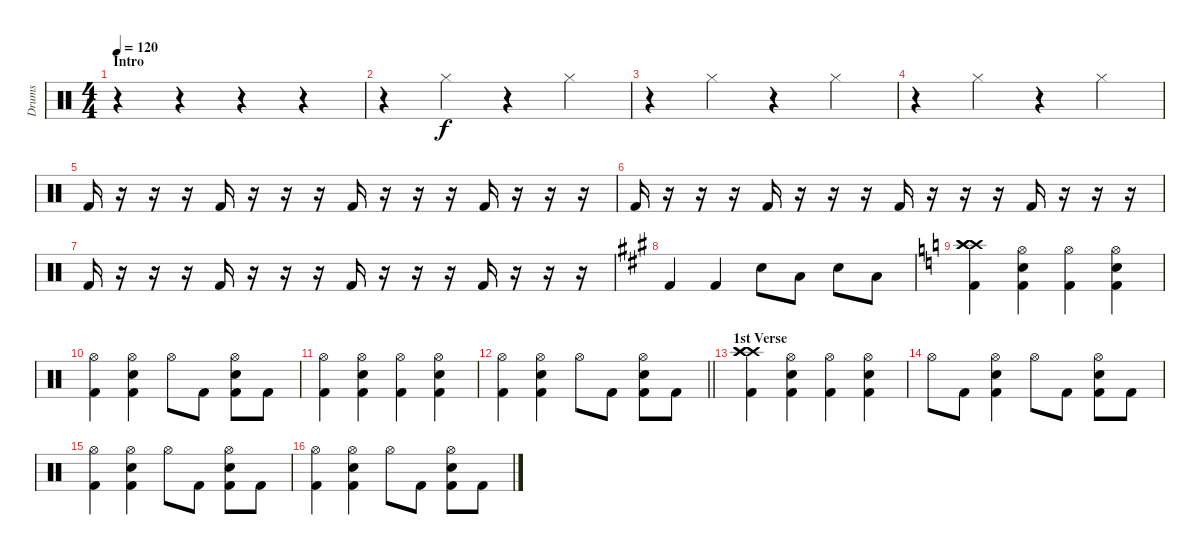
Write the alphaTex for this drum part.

\track ("Drums" "Drums") {instrument percussion}
\staff {score}
\articulation defaults
\ts (4 4)
\section ("" "Intro")
\tempo 120
\clef neutral
\ks c
r.4{dy f} r.4 r.4 r.4 |
r.4 "Hi-Hat (closed)".4 r.4 "Hi-Hat (closed)".4 |
r.4 "Hi-Hat (closed)".4 r.4 "Hi-Hat (closed)".4 |
r.4 "Hi-Hat (closed)".4 r.4 "Hi-Hat (closed)".4 |
"Kick (hit) 2".16 r.16 r.16 r.16 "Kick (hit) 2".16 r.16 r.16 r.16 "Kick (hit) 2".16 r.16 r.16 r.16 "Kick (hit) 2".16 r.16 r.16 r.16 |
"Kick (hit) 2".16 r.16 r.16 r.16 "Kick (hit) 2".16 r.16 r.16 r.16 "Kick (hit) 2".16 r.16 r.16 r.16 "Kick (hit) 2".16 r.16 r.16 r.16 |
"Kick (hit) 2".16 r.16 r.16 r.16 "Kick (hit) 2".16 r.16 r.16 r.16 "Kick (hit) 2".16 r.16 r.16 r.16 "Kick (hit) 2".16 r.16 r.16 r.16 |
\ks a "Kick (hit) 2".4 "Kick (hit) 2".4 "Electric Snare (hit)".8 "Low Tom (hit)".8 "Electric Snare (hit)".8 "Low Tom (hit)".8
|
\ks c
("Crash high (hit)" "Crash high (hit)" "Crash high (hit)" "Kick (hit) 2").4 ("Hi-Hat (open)" "Electric Snare (hit)" "Kick (hit) 2").4 ("Hi-Hat (open)" "Kick (hit) 2").4 ("Hi-Hat (open)" "Electric Snare (hit)" "Kick (hit) 2").4 |
("Hi-Hat (open)" "Kick (hit) 2").4 ("Hi-Hat (open)" "Electric Snare (hit)" "Kick (hit) 2").4 "Hi-Hat (open)".8 "Kick (hit) 2".8 ("Hi-Hat (open)" "Electric Snare (hit)" "Kick (hit) 2").8 "Kick (hit) 2".8 |
("Hi-Hat (open)" "Kick (hit) 2").4 ("Hi-Hat (open)" "Electric Snare (hit)" "Kick (hit) 2").4 ("Hi-Hat (open)" "Kick (hit) 2").4 ("Hi-Hat (open)" "Electric Snare (hit)" "Kick (hit) 2").4 |
\barLineRight lightlight
("Hi-Hat (open)" "Kick (hit) 2").4 ("Hi-Hat (open)" "Electric Snare (hit)" "Kick (hit) 2").4 "Hi-Hat (open)".8 "Kick (hit) 2".8 ("Hi-Hat (open)" "Electric Snare (hit)" "Kick (hit) 2").8 "Kick (hit) 2".8 |
\section ("" "1st Verse")
("Crash high (hit)" "Crash high (hit)" "Crash high (hit)" "Kick (hit) 2").4 ("Hi-Hat (open)" "Electric Snare (hit)" "Kick (hit) 2").4 ("Hi-Hat (open)" "Kick (hit) 2").4 ("Hi-Hat (open)" "Electric Snare (hit)" "Kick (hit) 2").4 |
"Hi-Hat (open)".8 "Kick (hit) 2".8 ("Hi-Hat (open)" "Electric Snare (hit)" "Kick (hit) 2").4 "Hi-Hat (open)".8 "Kick (hit) 2".8 ("Hi-Hat (open)" "Electric Snare (hit)" "Kick (hit) 2").8 "Kick (hit) 2".8 |
("Hi-Hat (open)" "Kick (hit) 2").4 ("Hi-Hat (open)" "Electric Snare (hit)" "Kick (hit) 2").4 "Hi-Hat (open)".8 "Kick (hit) 2".8 ("Hi-Hat (open)" "Electric Snare (hit)" "Kick (hit) 2").8 "Kick (hit) 2".8 |
("Hi-Hat (open)" "Kick (hit) 2").4 ("Hi-Hat (open)" "Electric Snare (hit)" "Kick (hit) 2").4 "Hi-Hat (open)".8 "Kick (hit) 2".8 ("Hi-Hat (open)" "Electric Snare (hit)" "Kick (hit) 2").8 "Kick (hit) 2".8
